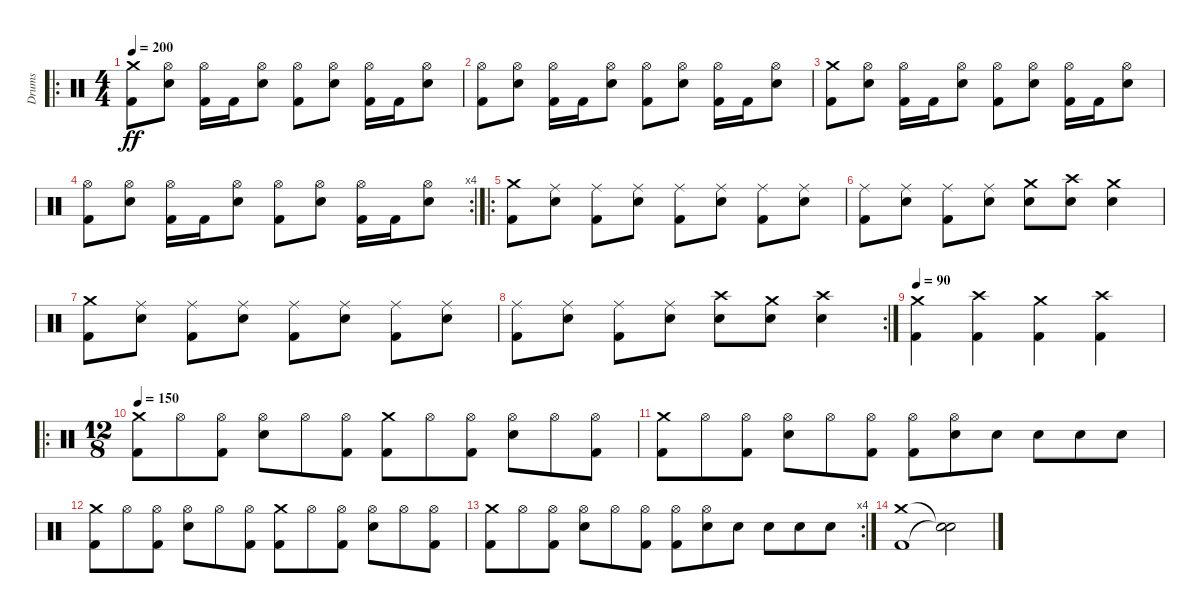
\track ("Drums" "Drums") {instrument percussion}
\staff {score}
\articulation defaults
\ro
\ts (4 4)
\tempo 200
\clef neutral
\ks c
("Crash medium (hit)" "Kick (hit) 2").8{dy ff} ("Hi-Hat (open)" "Snare (hit) 2").8 ("Hi-Hat (open)" "Kick (hit) 2").16 "Kick (hit) 2".16 ("Hi-Hat (open)" "Snare (hit) 2").8 ("Hi-Hat (open)" "Kick (hit) 2").8 ("Hi-Hat (open)" "Snare (hit) 2").8 ("Hi-Hat (open)" "Kick (hit) 2").16 "Kick (hit) 2".16 ("Hi-Hat (open)" "Snare (hit) 2").8 |
("Hi-Hat (open)" "Kick (hit) 2").8 ("Hi-Hat (open)" "Snare (hit) 2").8 ("Hi-Hat (open)" "Kick (hit) 2").16 "Kick (hit) 2".16 ("Hi-Hat (open)" "Snare (hit) 2").8 ("Hi-Hat (open)" "Kick (hit) 2").8 ("Hi-Hat (open)" "Snare (hit) 2").8 ("Hi-Hat (open)" "Kick (hit) 2").16 "Kick (hit) 2".16 ("Hi-Hat (open)" "Snare (hit) 2").8 |
("Crash medium (hit)" "Kick (hit) 2").8 ("Hi-Hat (open)" "Snare (hit) 2").8 ("Hi-Hat (open)" "Kick (hit) 2").16 "Kick (hit) 2".16 ("Hi-Hat (open)" "Snare (hit) 2").8 ("Hi-Hat (open)" "Kick (hit) 2").8 ("Hi-Hat (open)" "Snare (hit) 2").8 ("Hi-Hat (open)" "Kick (hit) 2").16 "Kick (hit) 2".16 ("Hi-Hat (open)" "Snare (hit) 2").8 |
\rc 4
("Hi-Hat (open)" "Kick (hit) 2").8 ("Hi-Hat (open)" "Snare (hit) 2").8 ("Hi-Hat (open)" "Kick (hit) 2").16 "Kick (hit) 2".16 ("Hi-Hat (open)" "Snare (hit) 2").8 ("Hi-Hat (open)" "Kick (hit) 2").8 ("Hi-Hat (open)" "Snare (hit) 2").8 ("Hi-Hat (open)" "Kick (hit) 2").16 "Kick (hit) 2".16 ("Hi-Hat (open)" "Snare (hit) 2").8 |
\ro
("Crash medium (hit)" "Kick (hit) 2").8 ("Ride (middle)" "Snare (hit) 2").8 ("Ride (middle)" "Kick (hit) 2").8 ("Ride (middle)" "Snare (hit) 2").8 ("Ride (middle)" "Kick (hit) 2").8 ("Ride (middle)" "Snare (hit) 2").8 ("Ride (middle)" "Kick (hit) 2").8 ("Ride (middle)" "Snare (hit) 2").8 |
("Ride (middle)" "Kick (hit) 2").8 ("Ride (middle)" "Snare (hit) 2").8 ("Ride (middle)" "Kick (hit) 2").8 ("Ride (middle)" "Snare (hit) 2").8 ("Crash medium (hit)" "Snare (hit) 2").8 ("Crash high (hit)" "Snare (hit) 2").8 ("Crash medium (hit)" "Snare (hit) 2").4 |
("Crash medium (hit)" "Kick (hit) 2").8 ("Ride (middle)" "Snare (hit) 2").8 ("Ride (middle)" "Kick (hit) 2").8 ("Ride (middle)" "Snare (hit) 2").8 ("Ride (middle)" "Kick (hit) 2").8 ("Ride (middle)" "Snare (hit) 2").8 ("Ride (middle)" "Kick (hit) 2").8 ("Ride (middle)" "Snare (hit) 2").8 |
\rc 2
("Ride (middle)" "Kick (hit) 2").8 ("Ride (middle)" "Snare (hit) 2").8 ("Ride (middle)" "Kick (hit) 2").8 ("Ride (middle)" "Snare (hit) 2").8 ("Crash high (hit)" "Snare (hit) 2").8 ("Crash medium (hit)" "Snare (hit) 2").8 ("Crash high (hit)" "Snare (hit) 2").4 |
\tempo 90
("Crash medium (hit)" "Kick (hit) 2").4 ("Crash high (hit)" "Kick (hit) 2").4 ("Crash medium (hit)" "Kick (hit) 2").4 ("Crash high (hit)" "Kick (hit) 2").4 |
\ro
\ts (12 8)
\tempo 150
("Crash medium (hit)" "Kick (hit) 2").8 "Hi-Hat (open)".8 ("Hi-Hat (open)" "Kick (hit) 2").8 ("Hi-Hat (open)" "Snare (hit) 2").8 "Hi-Hat (open)".8 ("Hi-Hat (open)" "Kick (hit) 2").8 ("Crash medium (hit)" "Kick (hit) 2").8 "Hi-Hat (open)".8 ("Hi-Hat (open)" "Kick (hit) 2").8 ("Hi-Hat (open)" "Snare (hit) 2").8 "Hi-Hat (open)".8 ("Hi-Hat (open)" "Kick (hit) 2").8 |
("Crash medium (hit)" "Kick (hit) 2").8 "Hi-Hat (open)".8 ("Hi-Hat (open)" "Kick (hit) 2").8 ("Hi-Hat (open)" "Snare (hit) 2").8 "Hi-Hat (open)".8 ("Hi-Hat (open)" "Kick (hit) 2").8 ("Hi-Hat (open)" "Kick (hit) 2").8 ("Hi-Hat (open)" "Snare (hit) 2").8 "Snare (hit) 2".8 "Snare (hit) 2".8 "Snare (hit) 2".8 "Snare (hit) 2".8 |
("Crash medium (hit)" "Kick (hit) 2").8 "Hi-Hat (open)".8 ("Hi-Hat (open)" "Kick (hit) 2").8 ("Hi-Hat (open)" "Snare (hit) 2").8 "Hi-Hat (open)".8 ("Hi-Hat (open)" "Kick (hit) 2").8 ("Crash medium (hit)" "Kick (hit) 2").8 "Hi-Hat (open)".8 ("Hi-Hat (open)" "Kick (hit) 2").8 ("Hi-Hat (open)" "Snare (hit) 2").8 "Hi-Hat (open)".8 ("Hi-Hat (open)" "Kick (hit) 2").8 |
\rc 4
("Crash medium (hit)" "Kick (hit) 2").8 "Hi-Hat (open)".8 ("Hi-Hat (open)" "Kick (hit) 2").8 ("Hi-Hat (open)" "Snare (hit) 2").8 "Hi-Hat (open)".8 ("Hi-Hat (open)" "Kick (hit) 2").8 ("Hi-Hat (open)" "Kick (hit) 2").8 ("Hi-Hat (open)" "Snare (hit) 2").8 "Snare (hit) 2".8 "Snare (hit) 2".8 "Snare (hit) 2".8 "Snare (hit) 2".8 |
("Crash medium (hit)" "Kick (hit) 2").1 ("Snare (hit)"{t} "Snare (hit)"{t}).2
